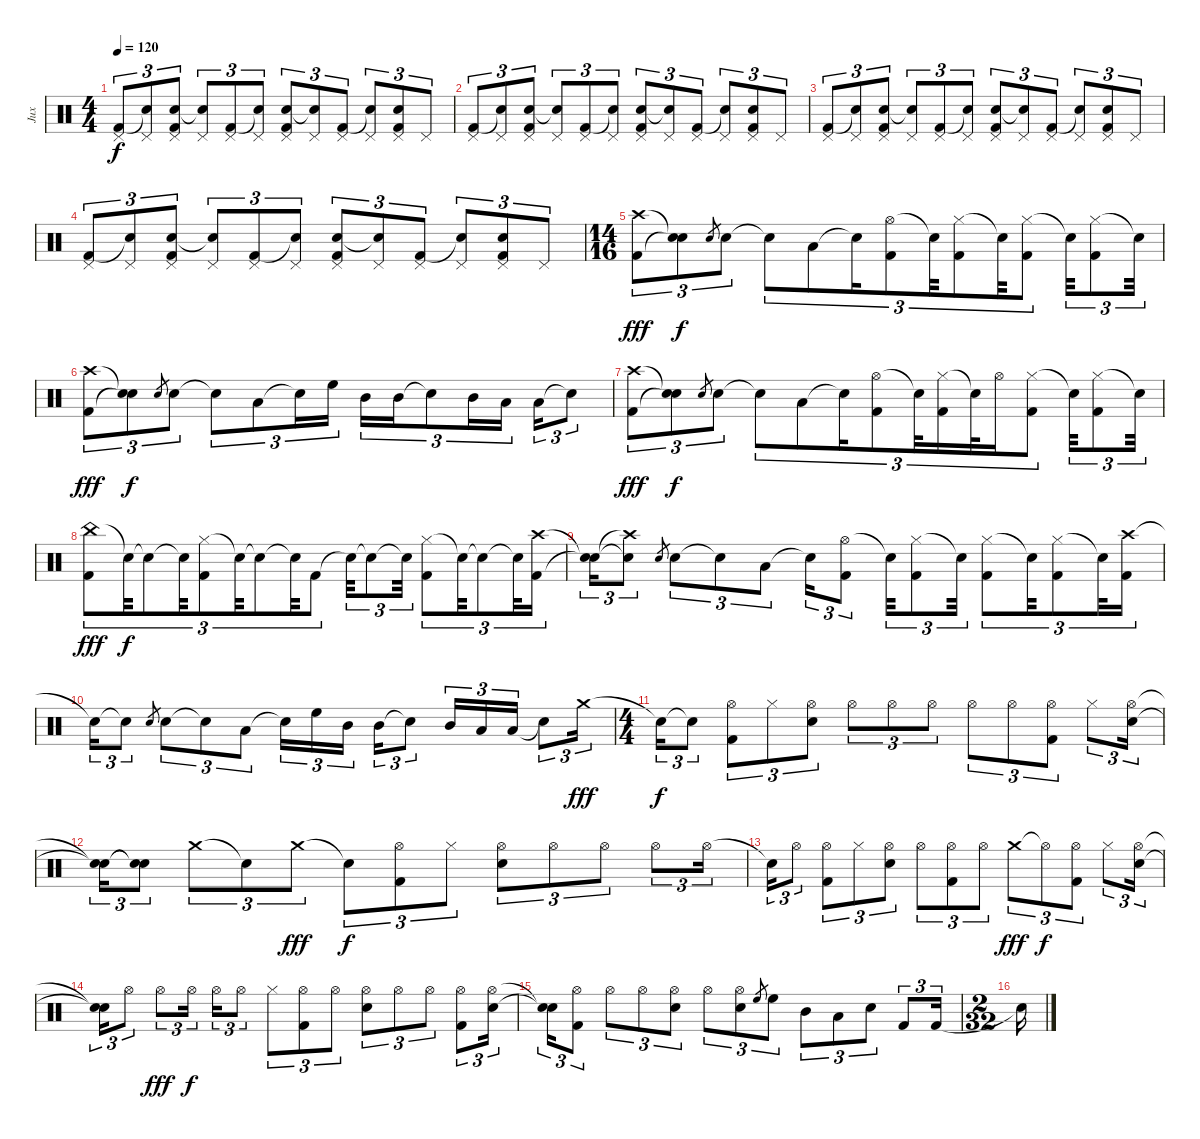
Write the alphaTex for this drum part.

\track ("Jux" "Jux") {instrument percussion}
\staff {score}
\articulation defaults
\ts (4 4)
\tempo 120
\clef neutral
\ks c
("Pedal Hi-Hat (hit)" "Kick (hit) 2").8{tu (3 2) dy f} ("Pedal Hi-Hat (hit)" "Snare (hit)"{t}).8{tu (3 2)} ("Pedal Hi-Hat (hit)" "Electric Snare (hit)" "Kick (hit) 2").8{tu (3 2)} ("Pedal Hi-Hat (hit)" "Snare (hit)"{t}).8{tu (3 2)} ("Pedal Hi-Hat (hit)" "Kick (hit) 2").8{tu (3 2)} ("Pedal Hi-Hat (hit)" "Snare (hit)"{t}).8{tu (3 2)} ("Pedal Hi-Hat (hit)" "Electric Snare (hit)" "Kick (hit) 2").8{tu (3 2)} ("Pedal Hi-Hat (hit)" "Snare (hit)"{t}).8{tu (3 2)} ("Pedal Hi-Hat (hit)" "Kick (hit) 2").8{tu (3 2)} ("Pedal Hi-Hat (hit)" "Snare (hit)"{t}).8{tu (3 2)} ("Pedal Hi-Hat (hit)" "Electric Snare (hit)" "Kick (hit) 2").8{tu (3 2)} "Pedal Hi-Hat (hit)".8{tu (3 2)} |
("Pedal Hi-Hat (hit)" "Kick (hit) 2").8{tu (3 2)} ("Pedal Hi-Hat (hit)" "Snare (hit)"{t}).8{tu (3 2)} ("Pedal Hi-Hat (hit)" "Electric Snare (hit)" "Kick (hit) 2").8{tu (3 2)} ("Pedal Hi-Hat (hit)" "Snare (hit)"{t}).8{tu (3 2)} ("Pedal Hi-Hat (hit)" "Kick (hit) 2").8{tu (3 2)} ("Pedal Hi-Hat (hit)" "Snare (hit)"{t}).8{tu (3 2)} ("Pedal Hi-Hat (hit)" "Electric Snare (hit)" "Kick (hit) 2").8{tu (3 2)} ("Pedal Hi-Hat (hit)" "Snare (hit)"{t}).8{tu (3 2)} ("Pedal Hi-Hat (hit)" "Kick (hit) 2").8{tu (3 2)} ("Pedal Hi-Hat (hit)" "Snare (hit)"{t}).8{tu (3 2)} ("Pedal Hi-Hat (hit)" "Electric Snare (hit)" "Kick (hit) 2").8{tu (3 2)} "Pedal Hi-Hat (hit)".8{tu (3 2)} |
("Pedal Hi-Hat (hit)" "Kick (hit) 2").8{tu (3 2)} ("Pedal Hi-Hat (hit)" "Snare (hit)"{t}).8{tu (3 2)} ("Pedal Hi-Hat (hit)" "Electric Snare (hit)" "Kick (hit) 2").8{tu (3 2)} ("Pedal Hi-Hat (hit)" "Snare (hit)"{t}).8{tu (3 2)} ("Pedal Hi-Hat (hit)" "Kick (hit) 2").8{tu (3 2)} ("Pedal Hi-Hat (hit)" "Snare (hit)"{t}).8{tu (3 2)} ("Pedal Hi-Hat (hit)" "Electric Snare (hit)" "Kick (hit) 2").8{tu (3 2)} ("Pedal Hi-Hat (hit)" "Snare (hit)"{t}).8{tu (3 2)} ("Pedal Hi-Hat (hit)" "Kick (hit) 2").8{tu (3 2)} ("Pedal Hi-Hat (hit)" "Snare (hit)"{t}).8{tu (3 2)} ("Pedal Hi-Hat (hit)" "Electric Snare (hit)" "Kick (hit) 2").8{tu (3 2)} "Pedal Hi-Hat (hit)".8{tu (3 2)} |
("Pedal Hi-Hat (hit)" "Kick (hit) 2").8{tu (3 2)} ("Pedal Hi-Hat (hit)" "Snare (hit)"{t}).8{tu (3 2)} ("Pedal Hi-Hat (hit)" "Electric Snare (hit)" "Kick (hit) 2").8{tu (3 2)} ("Pedal Hi-Hat (hit)" "Snare (hit)"{t}).8{tu (3 2)} ("Pedal Hi-Hat (hit)" "Kick (hit) 2").8{tu (3 2)} ("Pedal Hi-Hat (hit)" "Snare (hit)"{t}).8{tu (3 2)} ("Pedal Hi-Hat (hit)" "Electric Snare (hit)" "Kick (hit) 2").8{tu (3 2)} ("Pedal Hi-Hat (hit)" "Snare (hit)"{t}).8{tu (3 2)} ("Pedal Hi-Hat (hit)" "Kick (hit) 2").8{tu (3 2)} ("Pedal Hi-Hat (hit)" "Snare (hit)"{t}).8{tu (3 2)} ("Pedal Hi-Hat (hit)" "Electric Snare (hit)" "Kick (hit) 2").8{tu (3 2)} "Pedal Hi-Hat (hit)".8{tu (3 2)} |
\ts (14 16)
("Crash high (hit)" "Kick (hit) 2").8{tu (3 2) dy fff} ("Snare (hit)"{t} "Snare (hit)"{t}).8{tu (3 2) dy f} "Electric Snare (hit)".8{gr} "Electric Snare (hit)".8{tu (3 2)} "Snare (hit)"{t}.8{tu (3 2)} "Low Tom (hit)".8{tu (3 2)} "Snare (hit)"{t}.16{tu (3 2)} ("Hi-Hat (open)" "Kick (hit) 2").8{tu (3 2)} "Snare (hit)"{t}.32{tu (3 2)} ("Hi-Hat (closed)" "Kick (hit) 2").8{tu (3 2)} "Snare (hit)"{t}.32{tu (3 2)} ("Hi-Hat (closed)" "Kick (hit) 2").8{tu (3 2)} "Snare (hit)"{t}.32{tu (3 2)} ("Hi-Hat (closed)" "Kick (hit) 2").8{tu (3 2)} "Snare (hit)"{t}.32{tu (3 2)} |
("Crash high (hit)" "Kick (hit) 2").8{tu (3 2) dy fff} ("Snare (hit)"{t} "Snare (hit)"{t}).8{tu (3 2) dy f} "Electric Snare (hit)".8{gr} "Electric Snare (hit)".8{tu (3 2)} "Snare (hit)"{t}.8{tu (3 2)} "Low Tom (hit)".8{tu (3 2)} "Snare (hit)"{t}.16{tu (3 2)} "High Floor Tom (hit)".16{tu (3 2)} "Mid Tom (hit)".16{tu (3 2)} "Mid Tom (hit)".16{tu (3 2)} "Snare (hit)"{t}.8{tu (3 2)} "Mid Tom (hit)".16{tu (3 2)} "Low Tom (hit)".16{tu (3 2)} "Low Tom (hit)".16{tu (3 2)} "Snare (hit)"{t}.8{tu (3 2)} |
("Crash high (hit)" "Kick (hit) 2").8{tu (3 2) dy fff} ("Snare (hit)"{t} "Snare (hit)"{t}).8{tu (3 2) dy f} "Electric Snare (hit)".8{gr} "Electric Snare (hit)".8{tu (3 2)} "Snare (hit)"{t}.8{tu (3 2)} "Low Tom (hit)".8{tu (3 2)} "Snare (hit)"{t}.16{tu (3 2)} ("Hi-Hat (open)" "Kick (hit) 2").8{tu (3 2)} "Snare (hit)"{t}.32{tu (3 2)} ("Hi-Hat (closed)" "Kick (hit) 2").16{tu (3 2)} "Snare (hit)"{t}.32{tu (3 2)} "Hi-Hat (open)".16{tu (3 2)} ("Hi-Hat (closed)" "Kick (hit) 2").8{tu (3 2)} "Snare (hit)"{t}.32{tu (3 2)} ("Hi-Hat (closed)" "Kick (hit) 2").8{tu (3 2)} "Snare (hit)"{t}.32{tu (3 2)} |
("China (hit)" "Kick (hit) 2").8{tu (3 2) dy fff} "Snare (hit)"{t}.32{tu (3 2) dy f} "Snare (hit)"{t}.8{tu (3 2)} "Snare (hit)"{t}.32{tu (3 2)} ("Hi-Hat (closed)" "Kick (hit) 2").8{tu (3 2)} "Snare (hit)"{t}.32{tu (3 2)} "Snare (hit)"{t}.8{tu (3 2)} "Snare (hit)"{t}.32{tu (3 2)} "Kick (hit) 2".8{tu (3 2)} "Snare (hit)"{t}.32{tu (3 2)} "Snare (hit)"{t}.8{tu (3 2)} "Snare (hit)"{t}.32{tu (3 2)} ("Hi-Hat (closed)" "Kick (hit) 2").8{tu (3 2)} "Snare (hit)"{t}.32{tu (3 2)} "Snare (hit)"{t}.8{tu (3 2)} "Snare (hit)"{t}.32{tu (3 2)} ("Crash high (hit)" "Kick (hit) 2").16{tu (3 2)} |
("Snare (hit)"{t} "Snare (hit)"{t}).16{tu (3 2)} ("Crash high (hit)"{t} "Snare (hit)"{t}).8{tu (3 2)} "Electric Snare (hit)".8{gr} "Electric Snare (hit)".8{tu (3 2)} "Snare (hit)"{t}.8{tu (3 2)} "Low Tom (hit)".8{tu (3 2)} "Snare (hit)"{t}.16{tu (3 2)} ("Hi-Hat (open)" "Kick (hit) 2").8{tu (3 2)} "Snare (hit)"{t}.32{tu (3 2)} ("Hi-Hat (closed)" "Kick (hit) 2").8{tu (3 2)} "Snare (hit)"{t}.32{tu (3 2)} ("Hi-Hat (closed)" "Kick (hit) 2").8{tu (3 2)} "Snare (hit)"{t}.32{tu (3 2)} ("Hi-Hat (closed)" "Kick (hit) 2").8{tu (3 2)} "Snare (hit)"{t}.32{tu (3 2)} ("Crash high (hit)" "Kick (hit) 2").16{tu (3 2)} |
"Snare (hit)"{t}.16{tu (3 2)} "Snare (hit)"{t}.8{tu (3 2)} "Electric Snare (hit)".8{gr} "Electric Snare (hit)".8{tu (3 2)} "Snare (hit)"{t}.8{tu (3 2)} "Low Tom (hit)".8{tu (3 2)} "Snare (hit)"{t}.16{tu (3 2)} "High Floor Tom (hit)".16{tu (3 2)} "Mid Tom (hit)".16{tu (3 2)} "Mid Tom (hit)".16{tu (3 2)} "Snare (hit)"{t}.8{tu (3 2)} "Mid Tom (hit)".16{tu (3 2)} "Low Tom (hit)".16{tu (3 2)} "Low Tom (hit)".16{tu (3 2)} "Snare (hit)"{t}.8{tu (3 2)} "Crash medium (hit)".16{tu (3 2) dy fff} |
\ts (4 4)
"Snare (hit)"{t}.16{tu (3 2) dy f} "Snare (hit)"{t}.8{tu (3 2)} ("Hi-Hat (open)" "Kick (hit) 2").8{tu (3 2)} "Hi-Hat (closed)".8{tu (3 2)} ("Hi-Hat (open)" "Electric Snare (hit)").8{tu (3 2)} "Hi-Hat (open)".8{tu (3 2)} "Hi-Hat (open)".8{tu (3 2)} "Hi-Hat (open)".8{tu (3 2)} "Hi-Hat (open)".8{tu (3 2)} "Hi-Hat (open)".8{tu (3 2)} ("Hi-Hat (open)" "Kick (hit) 2").8{tu (3 2)} "Hi-Hat (closed)".8{tu (3 2)} ("Hi-Hat (open)" "Electric Snare (hit)").16{tu (3 2)} |
("Snare (hit)"{t} "Snare (hit)"{t}).16{tu (3 2)} ("Snare (hit)"{t} "Snare (hit)"{t}).8{tu (3 2)} "Crash medium (hit)".8{tu (3 2)} "Snare (hit)"{t}.8{tu (3 2)} "Crash medium (hit)".8{tu (3 2) dy fff} "Snare (hit)"{t}.8{tu (3 2) dy f} ("Hi-Hat (open)" "Kick (hit) 2").8{tu (3 2)} "Hi-Hat (closed)".8{tu (3 2)} ("Hi-Hat (open)" "Electric Snare (hit)").8{tu (3 2)} "Hi-Hat (open)".8{tu (3 2)} "Hi-Hat (open)".8{tu (3 2)} "Hi-Hat (open)".8{tu (3 2)} "Hi-Hat (open)".16{tu (3 2)} |
"Snare (hit)"{t}.16{tu (3 2)} "Hi-Hat (open)".8{tu (3 2)} ("Hi-Hat (open)" "Kick (hit) 2").8{tu (3 2)} "Hi-Hat (closed)".8{tu (3 2)} ("Hi-Hat (open)" "Electric Snare (hit)").8{tu (3 2)} "Hi-Hat (open)".8{tu (3 2)} ("Hi-Hat (open)" "Kick (hit) 2").8{tu (3 2)} "Hi-Hat (open)".8{tu (3 2)} "Crash medium (hit)".8{tu (3 2) dy fff} "Hi-Hat (open)"{t}.8{tu (3 2) dy f} ("Hi-Hat (open)" "Kick (hit) 2").8{tu (3 2)} "Hi-Hat (closed)".8{tu (3 2)} ("Hi-Hat (open)" "Electric Snare (hit)").16{tu (3 2)} |
("Snare (hit)"{t} "Snare (hit)"{t}).16{tu (3 2)} "Hi-Hat (open)".8{tu (3 2)} "Hi-Hat (open)".8{tu (3 2) dy fff} "Hi-Hat (open)".16{tu (3 2) dy f} "Hi-Hat (open)".16{tu (3 2)} "Hi-Hat (open)".8{tu (3 2)} "Hi-Hat (closed)".8{tu (3 2)} ("Hi-Hat (open)" "Kick (hit) 2").8{tu (3 2)} "Hi-Hat (open)".8{tu (3 2)} ("Hi-Hat (open)" "Electric Snare (hit)").8{tu (3 2)} "Hi-Hat (open)".8{tu (3 2)} "Hi-Hat (open)".8{tu (3 2)} ("Hi-Hat (open)" "Kick (hit) 2").8{tu (3 2)} ("Hi-Hat (open)" "Electric Snare (hit)").16{tu (3 2)} |
("Snare (hit)"{t} "Snare (hit)"{t}).16{tu (3 2)} ("Hi-Hat (open)" "Kick (hit) 2").8{tu (3 2)} "Hi-Hat (open)".8{tu (3 2)} "Hi-Hat (open)".8{tu (3 2)} ("Hi-Hat (open)" "Electric Snare (hit)").8{tu (3 2)} "Hi-Hat (open)".8{tu (3 2)} ("Hi-Hat (open)" "Electric Snare (hit)").8{tu (3 2)} "High Floor Tom (hit)".8{gr} "High Floor Tom (hit)".8{tu (3 2)} "Mid Tom (hit)".8{tu (3 2)} "Low Tom (hit)".8{tu (3 2)} "Electric Snare (hit)".8{tu (3 2)} "Kick (hit) 2".8{tu (3 2)} "Kick (hit) 2".16{tu (3 2)} |
\ts (2 32)
"Snare (hit)"{t}.16
